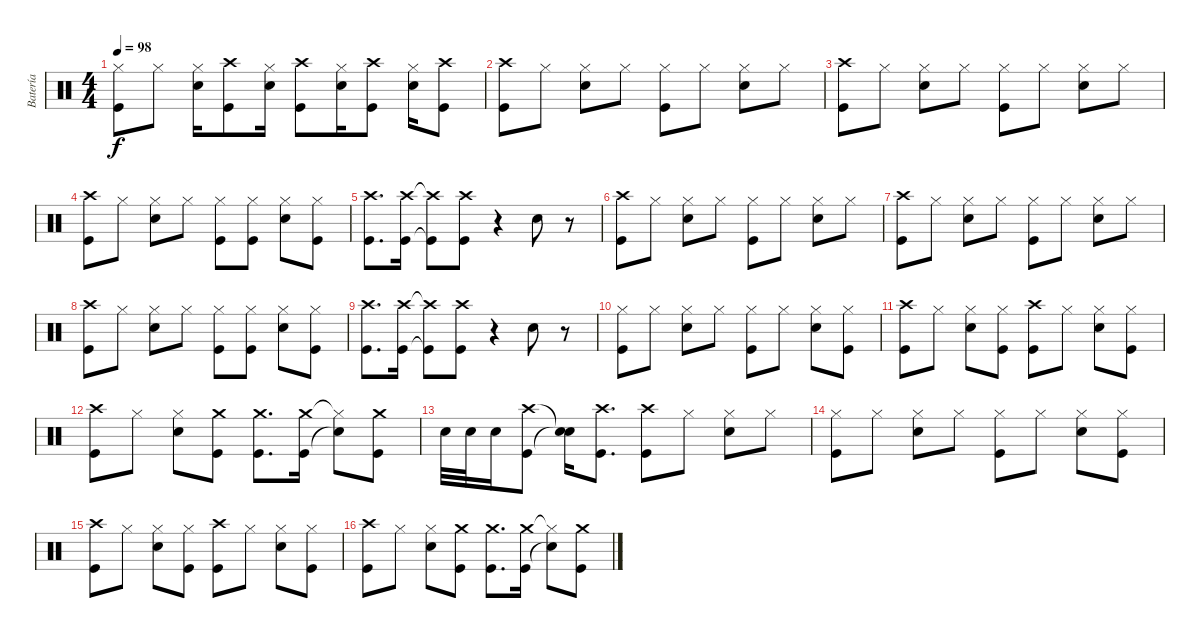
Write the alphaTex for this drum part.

\track ("Batería" "Batería") {instrument percussion}
\staff {score}
\articulation defaults
\ts (4 4)
\tempo 98
\clef neutral
\ks c
("Hi-Hat (closed)" "Kick (hit)").8{dy f} "Hi-Hat (closed)".8 ("Hi-Hat (closed)" "Electric Snare (hit)").16 ("Crash high (hit)" "Kick (hit)").8 ("Hi-Hat (closed)" "Electric Snare (hit)").16 ("Crash high (hit)" "Kick (hit)").8 ("Hi-Hat (closed)" "Electric Snare (hit)").16 ("Crash high (hit)" "Kick (hit)").8 ("Hi-Hat (closed)" "Electric Snare (hit)").16 ("Crash high (hit)" "Kick (hit)").8 |
("Crash high (hit)" "Kick (hit)").8 "Hi-Hat (closed)".8 ("Hi-Hat (closed)" "Electric Snare (hit)").8 "Hi-Hat (closed)".8 ("Hi-Hat (closed)" "Kick (hit)").8 "Hi-Hat (closed)".8 ("Hi-Hat (closed)" "Electric Snare (hit)").8 "Hi-Hat (closed)".8 |
("Crash high (hit)" "Kick (hit)").8 "Hi-Hat (closed)".8 ("Hi-Hat (closed)" "Electric Snare (hit)").8 "Hi-Hat (closed)".8 ("Hi-Hat (closed)" "Kick (hit)").8 "Hi-Hat (closed)".8 ("Hi-Hat (closed)" "Electric Snare (hit)").8 "Hi-Hat (closed)".8 |
("Crash high (hit)" "Kick (hit)").8 "Hi-Hat (closed)".8 ("Hi-Hat (closed)" "Electric Snare (hit)").8 "Hi-Hat (closed)".8 ("Hi-Hat (closed)" "Kick (hit)").8 ("Hi-Hat (closed)" "Kick (hit)").8 ("Hi-Hat (closed)" "Electric Snare (hit)").8 ("Hi-Hat (closed)" "Kick (hit)").8 |
("Crash high (hit)" "Kick (hit)").8{d} ("Crash high (hit)" "Kick (hit)").16 ("Crash high (hit)"{t} "Kick (hit)"{t}).8 ("Crash high (hit)" "Kick (hit)").8 r.4 "Electric Snare (hit)".8 r.8 |
("Crash high (hit)" "Kick (hit)").8 "Hi-Hat (closed)".8 ("Hi-Hat (closed)" "Electric Snare (hit)").8 "Hi-Hat (closed)".8 ("Hi-Hat (closed)" "Kick (hit)").8 "Hi-Hat (closed)".8 ("Hi-Hat (closed)" "Electric Snare (hit)").8 "Hi-Hat (closed)".8 |
("Crash high (hit)" "Kick (hit)").8 "Hi-Hat (closed)".8 ("Hi-Hat (closed)" "Electric Snare (hit)").8 "Hi-Hat (closed)".8 ("Hi-Hat (closed)" "Kick (hit)").8 "Hi-Hat (closed)".8 ("Hi-Hat (closed)" "Electric Snare (hit)").8 "Hi-Hat (closed)".8 |
("Crash high (hit)" "Kick (hit)").8 "Hi-Hat (closed)".8 ("Hi-Hat (closed)" "Electric Snare (hit)").8 "Hi-Hat (closed)".8 ("Hi-Hat (closed)" "Kick (hit)").8 ("Hi-Hat (closed)" "Kick (hit)").8 ("Hi-Hat (closed)" "Electric Snare (hit)").8 ("Hi-Hat (closed)" "Kick (hit)").8 |
("Crash high (hit)" "Kick (hit)").8{d} ("Crash high (hit)" "Kick (hit)").16 ("Crash high (hit)"{t} "Kick (hit)"{t}).8 ("Crash high (hit)" "Kick (hit)").8 r.4 "Electric Snare (hit)".8 r.8 |
("Hi-Hat (closed)" "Kick (hit)").8 "Hi-Hat (closed)".8 ("Hi-Hat (closed)" "Electric Snare (hit)").8 "Hi-Hat (closed)".8 ("Hi-Hat (closed)" "Kick (hit)").8 "Hi-Hat (closed)".8 ("Hi-Hat (closed)" "Electric Snare (hit)").8 ("Hi-Hat (closed)" "Kick (hit)").8 |
("Crash high (hit)" "Kick (hit)").8 "Hi-Hat (closed)".8 ("Hi-Hat (closed)" "Electric Snare (hit)").8 ("Hi-Hat (closed)" "Kick (hit)").8 ("Crash high (hit)" "Kick (hit)").8 "Hi-Hat (closed)".8 ("Hi-Hat (closed)" "Electric Snare (hit)").8 ("Hi-Hat (closed)" "Kick (hit)").8 |
("Crash high (hit)" "Kick (hit)").8 "Hi-Hat (closed)".8 ("Hi-Hat (closed)" "Electric Snare (hit)").8 ("Crash medium (hit)" "Kick (hit)").8 ("Crash medium (hit)" "Kick (hit)").8{d} ("Crash medium (hit)" "Kick (hit)").16 ("Hi-Hat (closed)"{t} "Electric Snare (hit)"{t}).8 ("Crash medium (hit)" "Kick (hit)").8 |
"Electric Snare (hit)".32 "Electric Snare (hit)".32 "Electric Snare (hit)".16 ("Crash high (hit)" "Kick (hit)").8 ("Snare (hit)"{t} "Snare (hit)"{t}).16 ("Crash high (hit)" "Kick (hit)").8{d} ("Crash high (hit)" "Kick (hit)").8 "Hi-Hat (closed)".8 ("Hi-Hat (closed)" "Electric Snare (hit)").8 "Hi-Hat (closed)".8 |
("Hi-Hat (closed)" "Kick (hit)").8 "Hi-Hat (closed)".8 ("Hi-Hat (closed)" "Electric Snare (hit)").8 "Hi-Hat (closed)".8 ("Hi-Hat (closed)" "Kick (hit)").8 "Hi-Hat (closed)".8 ("Hi-Hat (closed)" "Electric Snare (hit)").8 ("Hi-Hat (closed)" "Kick (hit)").8 |
("Crash high (hit)" "Kick (hit)").8 "Hi-Hat (closed)".8 ("Hi-Hat (closed)" "Electric Snare (hit)").8 ("Hi-Hat (closed)" "Kick (hit)").8 ("Crash high (hit)" "Kick (hit)").8 "Hi-Hat (closed)".8 ("Hi-Hat (closed)" "Electric Snare (hit)").8 ("Hi-Hat (closed)" "Kick (hit)").8 |
("Crash high (hit)" "Kick (hit)").8 "Hi-Hat (closed)".8 ("Hi-Hat (closed)" "Electric Snare (hit)").8 ("Crash medium (hit)" "Kick (hit)").8 ("Crash medium (hit)" "Kick (hit)").8{d} ("Crash medium (hit)" "Kick (hit)").16 ("Hi-Hat (closed)"{t} "Electric Snare (hit)"{t}).8 ("Crash medium (hit)" "Kick (hit)").8
